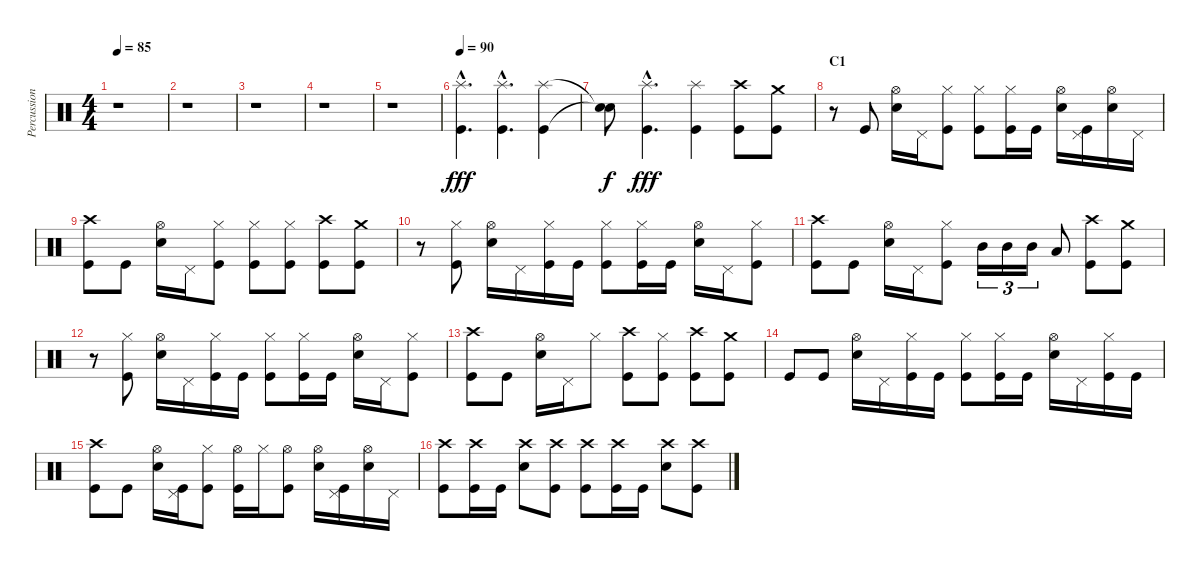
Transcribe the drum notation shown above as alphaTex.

\track ("Percussion" "Percussion") {instrument percussion}
\staff {score}
\articulation defaults
\ts (4 4)
\tempo 85
\clef neutral
\ks c
r.1{dy fff} |
r.1 |
r.1 |
r.1 |
r.1 |
\tempo 90
("Splash (hit)"{hac} "Kick (hit)"{hac}).4{d} ("Splash (hit)"{hac} "Kick (hit)"{hac}).4{d} ("Splash (hit)" "Kick (hit)").4 |
("Snare (hit)"{t} "Snare (hit)"{t}).8{dy f} ("Splash (hit)"{hac} "Kick (hit)"{hac}).4{d dy fff} ("Splash (hit)" "Kick (hit)").4 ("Crash high (hit)" "Kick (hit)").8 ("Crash medium (hit)" "Kick (hit)").8 |
\section ("" "C1")
r.8 "Kick (hit)".8 ("Hi-Hat (open)" "Electric Snare (hit)").16 "Pedal Hi-Hat (hit)".16 ("Hi-Hat (closed)" "Kick (hit)").8 ("Hi-Hat (closed)" "Kick (hit)").8 ("Hi-Hat (closed)" "Kick (hit)").16 "Kick (hit)".16 ("Hi-Hat (open)" "Electric Snare (hit)").16 ("Pedal Hi-Hat (hit)" "Kick (hit)").16 ("Hi-Hat (open)" "Electric Snare (hit)").16 "Pedal Hi-Hat (hit)".16 |
("Crash high (hit)" "Kick (hit)").8 "Kick (hit)".8 ("Hi-Hat (open)" "Electric Snare (hit)").16 "Pedal Hi-Hat (hit)".16 ("Hi-Hat (closed)" "Kick (hit)").8 ("Hi-Hat (closed)" "Kick (hit)").8 ("Hi-Hat (closed)" "Kick (hit)").8 ("Crash high (hit)" "Kick (hit)").8 ("Crash medium (hit)" "Kick (hit)").8 |
r.8 ("Hi-Hat (closed)" "Kick (hit)").8 ("Hi-Hat (open)" "Electric Snare (hit)").16 "Pedal Hi-Hat (hit)".16 ("Hi-Hat (closed)" "Kick (hit)").16 "Kick (hit)".16 ("Hi-Hat (closed)" "Kick (hit)").8 ("Hi-Hat (closed)" "Kick (hit)").16 "Kick (hit)".16 ("Hi-Hat (open)" "Electric Snare (hit)").16 "Pedal Hi-Hat (hit)".16 ("Hi-Hat (closed)" "Kick (hit)").8 |
("Crash high (hit)" "Kick (hit)").8 "Kick (hit)".8 ("Hi-Hat (open)" "Electric Snare (hit)").16 "Pedal Hi-Hat (hit)".16 ("Hi-Hat (closed)" "Kick (hit)").8 "Mid Tom (hit)".16{tu (3 2)} "Mid Tom (hit)".16{tu (3 2)} "Mid Tom (hit)".16{tu (3 2)} "Low Tom (hit)".8 ("Crash high (hit)" "Kick (hit)").8 ("Crash medium (hit)" "Kick (hit)").8 |
r.8 ("Hi-Hat (closed)" "Kick (hit)").8 ("Hi-Hat (open)" "Electric Snare (hit)").16 "Pedal Hi-Hat (hit)".16 ("Hi-Hat (closed)" "Kick (hit)").16 "Kick (hit)".16 ("Hi-Hat (closed)" "Kick (hit)").8 ("Hi-Hat (closed)" "Kick (hit)").16 "Kick (hit)".16 ("Hi-Hat (open)" "Electric Snare (hit)").16 "Pedal Hi-Hat (hit)".16 ("Hi-Hat (closed)" "Kick (hit)").8 |
("Crash high (hit)" "Kick (hit)").8 "Kick (hit)".8 ("Hi-Hat (open)" "Electric Snare (hit)").16 "Pedal Hi-Hat (hit)".16 "Hi-Hat (closed)".8 ("Crash high (hit)" "Kick (hit)").8 ("Hi-Hat (closed)" "Kick (hit)").8 ("Crash high (hit)" "Kick (hit)").8 ("Crash medium (hit)" "Kick (hit)").8 |
"Kick (hit)".8 "Kick (hit)".8 ("Hi-Hat (open)" "Electric Snare (hit)").16 "Pedal Hi-Hat (hit)".16 ("Hi-Hat (closed)" "Kick (hit)").16 "Kick (hit)".16 ("Hi-Hat (closed)" "Kick (hit)").8 ("Hi-Hat (closed)" "Kick (hit)").16 "Kick (hit)".16 ("Hi-Hat (open)" "Electric Snare (hit)").16 "Pedal Hi-Hat (hit)".16 ("Hi-Hat (closed)" "Kick (hit)").16 "Kick (hit)".16 |
("Crash high (hit)" "Kick (hit)").8 "Kick (hit)".8 ("Hi-Hat (open)" "Electric Snare (hit)").16 ("Pedal Hi-Hat (hit)" "Kick (hit)").16 ("Hi-Hat (closed)" "Kick (hit)").8 ("Hi-Hat (open)" "Kick (hit)").16 "Hi-Hat (closed)".16 ("Hi-Hat (open)" "Kick (hit)").8 ("Hi-Hat (open)" "Electric Snare (hit)").16 ("Pedal Hi-Hat (hit)" "Kick (hit)").16 ("Hi-Hat (open)" "Electric Snare (hit)").16 "Pedal Hi-Hat (hit)".16 |
("Crash high (hit)" "Kick (hit)").8 ("Crash high (hit)" "Kick (hit)").16 "Kick (hit)".16 ("Crash high (hit)" "Electric Snare (hit)").8 ("Crash high (hit)" "Kick (hit)").8 ("Crash high (hit)" "Kick (hit)").8 ("Crash high (hit)" "Kick (hit)").16 "Kick (hit)".16 ("Crash high (hit)" "Electric Snare (hit)").8 ("Crash high (hit)" "Kick (hit)").8
